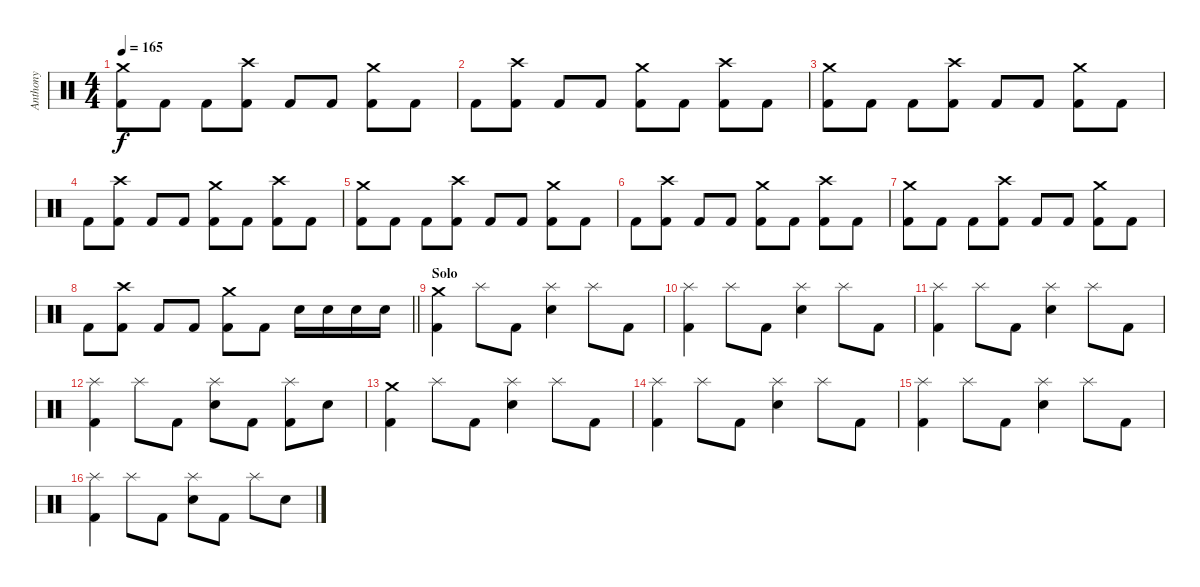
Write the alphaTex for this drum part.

\track ("Anthony" "Anthony") {instrument percussion}
\staff {score}
\articulation defaults
\ts (4 4)
\tempo 165
\clef neutral
\ks c
("Crash medium (hit)" "Kick (hit) 2").8{dy f} "Kick (hit) 2".8 "Kick (hit) 2".8 ("Crash high (hit)" "Kick (hit) 2").8 "Kick (hit) 2".8 "Kick (hit) 2".8 ("Crash medium (hit)" "Kick (hit) 2").8 "Kick (hit) 2".8 |
"Kick (hit) 2".8 ("Crash high (hit)" "Kick (hit) 2").8 "Kick (hit) 2".8 "Kick (hit) 2".8 ("Crash medium (hit)" "Kick (hit) 2").8 "Kick (hit) 2".8 ("Crash high (hit)" "Kick (hit) 2").8 "Kick (hit) 2".8 |
("Crash medium (hit)" "Kick (hit) 2").8 "Kick (hit) 2".8 "Kick (hit) 2".8 ("Crash high (hit)" "Kick (hit) 2").8 "Kick (hit) 2".8 "Kick (hit) 2".8 ("Crash medium (hit)" "Kick (hit) 2").8 "Kick (hit) 2".8 |
"Kick (hit) 2".8 ("Crash high (hit)" "Kick (hit) 2").8 "Kick (hit) 2".8 "Kick (hit) 2".8 ("Crash medium (hit)" "Kick (hit) 2").8 "Kick (hit) 2".8 ("Crash high (hit)" "Kick (hit) 2").8 "Kick (hit) 2".8 |
("Crash medium (hit)" "Kick (hit) 2").8 "Kick (hit) 2".8 "Kick (hit) 2".8 ("Crash high (hit)" "Kick (hit) 2").8 "Kick (hit) 2".8 "Kick (hit) 2".8 ("Crash medium (hit)" "Kick (hit) 2").8 "Kick (hit) 2".8 |
"Kick (hit) 2".8 ("Crash high (hit)" "Kick (hit) 2").8 "Kick (hit) 2".8 "Kick (hit) 2".8 ("Crash medium (hit)" "Kick (hit) 2").8 "Kick (hit) 2".8 ("Crash high (hit)" "Kick (hit) 2").8 "Kick (hit) 2".8 |
("Crash medium (hit)" "Kick (hit) 2").8 "Kick (hit) 2".8 "Kick (hit) 2".8 ("Crash high (hit)" "Kick (hit) 2").8 "Kick (hit) 2".8 "Kick (hit) 2".8 ("Crash medium (hit)" "Kick (hit) 2").8 "Kick (hit) 2".8 |
\barLineRight lightlight "Kick (hit) 2".8
("Crash high (hit)" "Kick (hit) 2").8 "Kick (hit) 2".8 "Kick (hit) 2".8 ("Crash medium (hit)" "Kick (hit) 2").8 "Kick (hit) 2".8 "Electric Snare (hit)".16 "Electric Snare (hit)".16 "Electric Snare (hit)".16 "Electric Snare (hit)".16 |
\section ("" "Solo")
("Crash medium (hit)" "Kick (hit) 2").4 "Splash (hit)".8 "Kick (hit) 2".8 ("Splash (hit)" "Electric Snare (hit)").4 "Splash (hit)".8 "Kick (hit) 2".8 |
("Splash (hit)" "Kick (hit) 2").4 "Splash (hit)".8 "Kick (hit) 2".8 ("Splash (hit)" "Electric Snare (hit)").4 "Splash (hit)".8 "Kick (hit) 2".8 |
("Splash (hit)" "Kick (hit) 2").4 "Splash (hit)".8 "Kick (hit) 2".8 ("Splash (hit)" "Electric Snare (hit)").4 "Splash (hit)".8 "Kick (hit) 2".8 |
("Splash (hit)" "Kick (hit) 2").4 "Splash (hit)".8 "Kick (hit) 2".8 ("Splash (hit)" "Electric Snare (hit)").8 "Kick (hit) 2".8 ("Splash (hit)" "Kick (hit) 2").8 "Electric Snare (hit)".8 |
("Crash medium (hit)" "Kick (hit) 2").4 "Splash (hit)".8 "Kick (hit) 2".8 ("Splash (hit)" "Electric Snare (hit)").4 "Splash (hit)".8 "Kick (hit) 2".8 |
("Splash (hit)" "Kick (hit) 2").4 "Splash (hit)".8 "Kick (hit) 2".8 ("Splash (hit)" "Electric Snare (hit)").4 "Splash (hit)".8 "Kick (hit) 2".8 |
("Splash (hit)" "Kick (hit) 2").4 "Splash (hit)".8 "Kick (hit) 2".8 ("Splash (hit)" "Electric Snare (hit)").4 "Splash (hit)".8 "Kick (hit) 2".8 |
("Splash (hit)" "Kick (hit) 2").4 "Splash (hit)".8 "Kick (hit) 2".8 ("Splash (hit)" "Electric Snare (hit)").8 "Kick (hit) 2".8 "Splash (hit)".8 "Electric Snare (hit)".8
